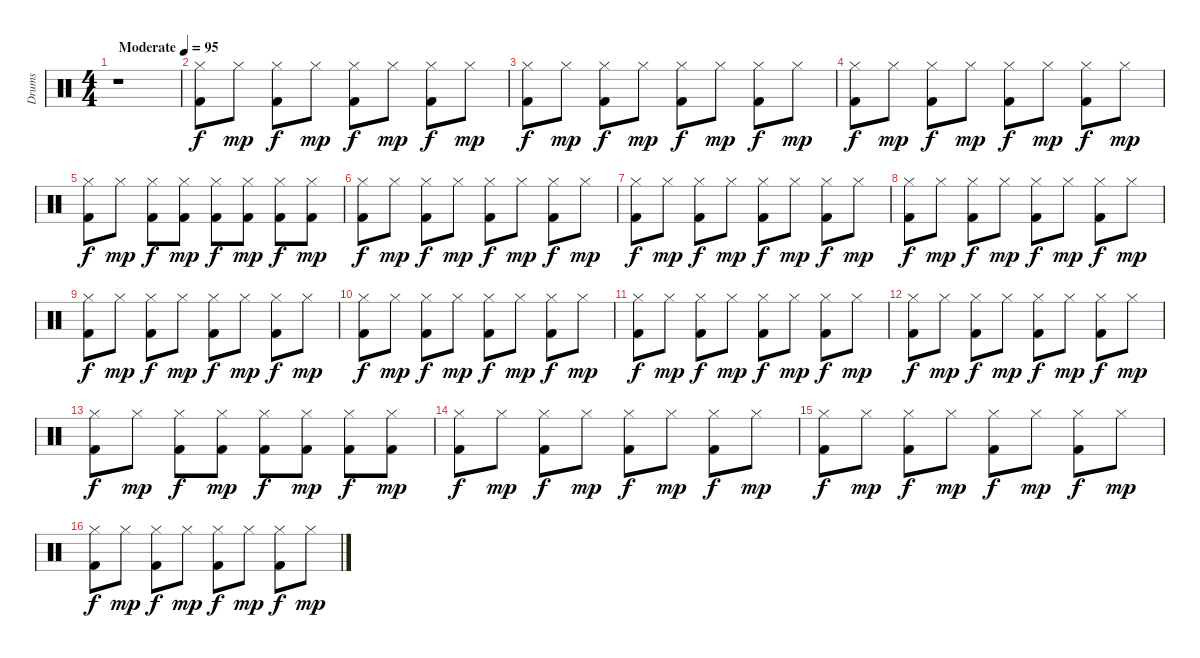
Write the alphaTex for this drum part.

\track ("Drums" "Drums") {instrument percussion}
\staff {score}
\articulation defaults
\ts (4 4)
\tempo (95 "Moderate")
\clef neutral
\ks c
r.1{dy f} |
("Kick (hit) 2" "Hi-Hat (closed)").8 "Hi-Hat (closed)".8{dy mp} ("Kick (hit) 2" "Hi-Hat (closed)").8{dy f} "Hi-Hat (closed)".8{dy mp} ("Kick (hit) 2" "Hi-Hat (closed)").8{dy f} "Hi-Hat (closed)".8{dy mp} ("Kick (hit) 2" "Hi-Hat (closed)").8{dy f} "Hi-Hat (closed)".8{dy mp} |
("Kick (hit) 2" "Hi-Hat (closed)").8{dy f} "Hi-Hat (closed)".8{dy mp} ("Kick (hit) 2" "Hi-Hat (closed)").8{dy f} "Hi-Hat (closed)".8{dy mp} ("Kick (hit) 2" "Hi-Hat (closed)").8{dy f} "Hi-Hat (closed)".8{dy mp} ("Kick (hit) 2" "Hi-Hat (closed)").8{dy f} "Hi-Hat (closed)".8{dy mp} |
("Kick (hit) 2" "Hi-Hat (closed)").8{dy f} "Hi-Hat (closed)".8{dy mp} ("Kick (hit) 2" "Hi-Hat (closed)").8{dy f} "Hi-Hat (closed)".8{dy mp} ("Kick (hit) 2" "Hi-Hat (closed)").8{dy f} "Hi-Hat (closed)".8{dy mp} ("Kick (hit) 2" "Hi-Hat (closed)").8{dy f} "Hi-Hat (closed)".8{dy mp} |
("Kick (hit) 2" "Hi-Hat (closed)").8{dy f} "Hi-Hat (closed)".8{dy mp} ("Kick (hit) 2" "Hi-Hat (closed)").8{dy f} ("Kick (hit) 2" "Hi-Hat (closed)").8{dy mp} ("Kick (hit) 2" "Hi-Hat (closed)").8{dy f} ("Kick (hit) 2" "Hi-Hat (closed)").8{dy mp} ("Kick (hit) 2" "Hi-Hat (closed)").8{dy f} ("Kick (hit) 2" "Hi-Hat (closed)").8{dy mp} |
("Kick (hit) 2" "Hi-Hat (closed)").8{dy f} "Hi-Hat (closed)".8{dy mp} ("Kick (hit) 2" "Hi-Hat (closed)").8{dy f} "Hi-Hat (closed)".8{dy mp} ("Kick (hit) 2" "Hi-Hat (closed)").8{dy f} "Hi-Hat (closed)".8{dy mp} ("Kick (hit) 2" "Hi-Hat (closed)").8{dy f} "Hi-Hat (closed)".8{dy mp} |
("Kick (hit) 2" "Hi-Hat (closed)").8{dy f} "Hi-Hat (closed)".8{dy mp} ("Kick (hit) 2" "Hi-Hat (closed)").8{dy f} "Hi-Hat (closed)".8{dy mp} ("Kick (hit) 2" "Hi-Hat (closed)").8{dy f} "Hi-Hat (closed)".8{dy mp} ("Kick (hit) 2" "Hi-Hat (closed)").8{dy f} "Hi-Hat (closed)".8{dy mp} |
("Kick (hit) 2" "Hi-Hat (closed)").8{dy f} "Hi-Hat (closed)".8{dy mp} ("Kick (hit) 2" "Hi-Hat (closed)").8{dy f} "Hi-Hat (closed)".8{dy mp} ("Kick (hit) 2" "Hi-Hat (closed)").8{dy f} "Hi-Hat (closed)".8{dy mp} ("Kick (hit) 2" "Hi-Hat (closed)").8{dy f} "Hi-Hat (closed)".8{dy mp} |
("Kick (hit) 2" "Hi-Hat (closed)").8{dy f} "Hi-Hat (closed)".8{dy mp} ("Kick (hit) 2" "Hi-Hat (closed)").8{dy f} "Hi-Hat (closed)".8{dy mp} ("Kick (hit) 2" "Hi-Hat (closed)").8{dy f} "Hi-Hat (closed)".8{dy mp} ("Kick (hit) 2" "Hi-Hat (closed)").8{dy f} "Hi-Hat (closed)".8{dy mp} |
("Kick (hit) 2" "Hi-Hat (closed)").8{dy f} "Hi-Hat (closed)".8{dy mp} ("Kick (hit) 2" "Hi-Hat (closed)").8{dy f} "Hi-Hat (closed)".8{dy mp} ("Kick (hit) 2" "Hi-Hat (closed)").8{dy f} "Hi-Hat (closed)".8{dy mp} ("Kick (hit) 2" "Hi-Hat (closed)").8{dy f} "Hi-Hat (closed)".8{dy mp} |
("Kick (hit) 2" "Hi-Hat (closed)").8{dy f} "Hi-Hat (closed)".8{dy mp} ("Kick (hit) 2" "Hi-Hat (closed)").8{dy f} "Hi-Hat (closed)".8{dy mp} ("Kick (hit) 2" "Hi-Hat (closed)").8{dy f} "Hi-Hat (closed)".8{dy mp} ("Kick (hit) 2" "Hi-Hat (closed)").8{dy f} "Hi-Hat (closed)".8{dy mp} |
("Kick (hit) 2" "Hi-Hat (closed)").8{dy f} "Hi-Hat (closed)".8{dy mp} ("Kick (hit) 2" "Hi-Hat (closed)").8{dy f} "Hi-Hat (closed)".8{dy mp} ("Kick (hit) 2" "Hi-Hat (closed)").8{dy f} "Hi-Hat (closed)".8{dy mp} ("Kick (hit) 2" "Hi-Hat (closed)").8{dy f} "Hi-Hat (closed)".8{dy mp} |
("Kick (hit) 2" "Hi-Hat (closed)").8{dy f} "Hi-Hat (closed)".8{dy mp} ("Kick (hit) 2" "Hi-Hat (closed)").8{dy f} ("Kick (hit) 2" "Hi-Hat (closed)").8{dy mp} ("Kick (hit) 2" "Hi-Hat (closed)").8{dy f} ("Kick (hit) 2" "Hi-Hat (closed)").8{dy mp} ("Kick (hit) 2" "Hi-Hat (closed)").8{dy f} ("Kick (hit) 2" "Hi-Hat (closed)").8{dy mp} |
("Kick (hit) 2" "Hi-Hat (closed)").8{dy f} "Hi-Hat (closed)".8{dy mp} ("Kick (hit) 2" "Hi-Hat (closed)").8{dy f} "Hi-Hat (closed)".8{dy mp} ("Kick (hit) 2" "Hi-Hat (closed)").8{dy f} "Hi-Hat (closed)".8{dy mp} ("Kick (hit) 2" "Hi-Hat (closed)").8{dy f} "Hi-Hat (closed)".8{dy mp} |
("Kick (hit) 2" "Hi-Hat (closed)").8{dy f} "Hi-Hat (closed)".8{dy mp} ("Kick (hit) 2" "Hi-Hat (closed)").8{dy f} "Hi-Hat (closed)".8{dy mp} ("Kick (hit) 2" "Hi-Hat (closed)").8{dy f} "Hi-Hat (closed)".8{dy mp} ("Kick (hit) 2" "Hi-Hat (closed)").8{dy f} "Hi-Hat (closed)".8{dy mp} |
("Kick (hit) 2" "Hi-Hat (closed)").8{dy f} "Hi-Hat (closed)".8{dy mp} ("Kick (hit) 2" "Hi-Hat (closed)").8{dy f} "Hi-Hat (closed)".8{dy mp} ("Kick (hit) 2" "Hi-Hat (closed)").8{dy f} "Hi-Hat (closed)".8{dy mp} ("Kick (hit) 2" "Hi-Hat (closed)").8{dy f} "Hi-Hat (closed)".8{dy mp}
